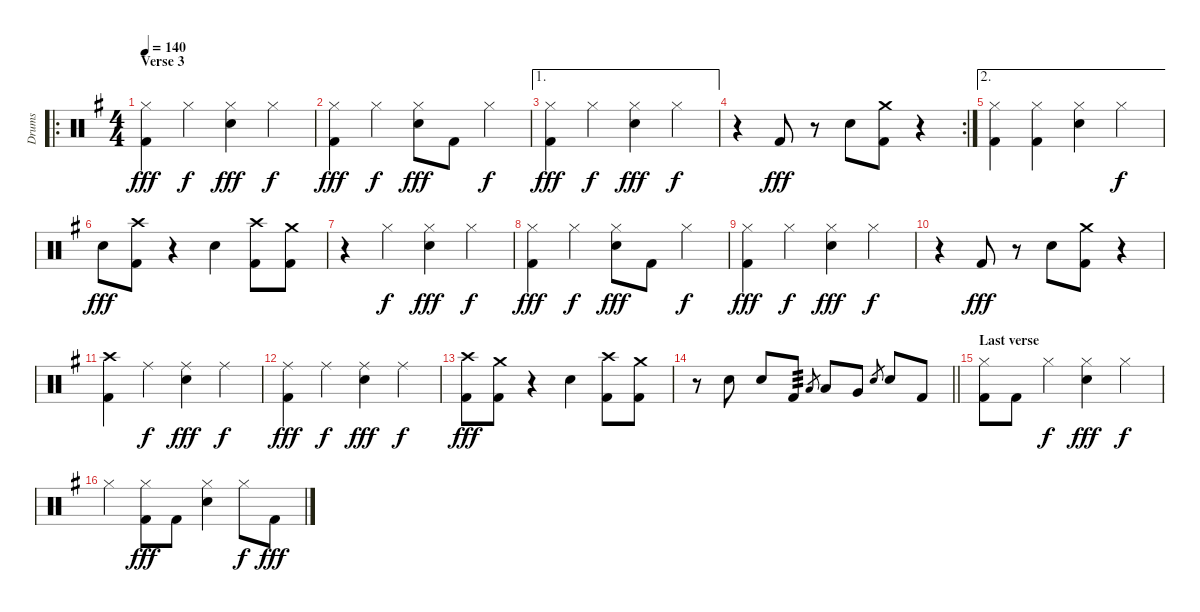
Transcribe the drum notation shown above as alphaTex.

\track ("Drums" "Drums") {instrument percussion}
\staff {score}
\articulation defaults
\ro
\ts (4 4)
\section ("" "Verse 3")
\tempo 140
\clef neutral
\ks eminor
("Hi-Hat (closed)" "Kick (hit) 2").4{dy fff} "Hi-Hat (closed)".4{dy f} ("Electric Snare (hit)" "Hi-Hat (closed)").4{dy fff} "Hi-Hat (closed)".4{dy f} |
("Hi-Hat (closed)" "Kick (hit) 2").4{dy fff} "Hi-Hat (closed)".4{dy f} ("Electric Snare (hit)" "Hi-Hat (closed)").8{dy fff} "Kick (hit) 2".8 "Hi-Hat (closed)".4{dy f} |
\ae 1
("Hi-Hat (closed)" "Kick (hit) 2").4{dy fff} "Hi-Hat (closed)".4{dy f} ("Electric Snare (hit)" "Hi-Hat (closed)").4{dy fff} "Hi-Hat (closed)".4{dy f} |
\rc 2
r.4 "Kick (hit) 2".8{dy fff} r.8 "Electric Snare (hit)".8 ("Crash medium (hit)" "Kick (hit) 2").8 r.4 |
\ae 2
("Hi-Hat (closed)" "Kick (hit) 2").4 ("Hi-Hat (closed)" "Kick (hit) 2").4 ("Electric Snare (hit)" "Hi-Hat (closed)").4 "Hi-Hat (closed)".4{dy f} |
"Electric Snare (hit)".8{dy fff} ("Crash high (hit)" "Kick (hit) 2").8 r.4 "Electric Snare (hit)".4 ("Crash high (hit)" "Kick (hit) 2").8 ("Crash medium (hit)" "Kick (hit) 2").8 |
r.4 "Hi-Hat (closed)".4{dy f} ("Electric Snare (hit)" "Hi-Hat (closed)").4{dy fff} "Hi-Hat (closed)".4{dy f} |
("Hi-Hat (closed)" "Kick (hit) 2").4{dy fff} "Hi-Hat (closed)".4{dy f} ("Electric Snare (hit)" "Hi-Hat (closed)").8{dy fff} "Kick (hit) 2".8 "Hi-Hat (closed)".4{dy f} |
("Hi-Hat (closed)" "Kick (hit) 2").4{dy fff} "Hi-Hat (closed)".4{dy f} ("Electric Snare (hit)" "Hi-Hat (closed)").4{dy fff} "Hi-Hat (closed)".4{dy f} |
r.4 "Kick (hit) 2".8{dy fff} r.8 "Electric Snare (hit)".8 ("Crash medium (hit)" "Kick (hit) 2").8 r.4 |
("Crash high (hit)" "Kick (hit) 2").4 "Ride (middle)".4{dy f} ("Electric Snare (hit)" "Ride (middle)").4{dy fff} "Ride (middle)".4{dy f} |
("Ride (middle)" "Kick (hit) 2").4{dy fff} "Ride (middle)".4{dy f} ("Electric Snare (hit)" "Ride (middle)").4{dy fff} "Ride (middle)".4{dy f} |
("Crash high (hit)" "Kick (hit) 2").8{dy fff} ("Crash medium (hit)" "Kick (hit) 2").8 r.4 "Electric Snare (hit)".4 ("Crash high (hit)" "Kick (hit) 2").8 ("Crash medium (hit)" "Kick (hit) 2").8 |
\barLineRight lightlight
r.8 "Electric Snare (hit)".8 "Electric Snare (hit)".8 "Kick (hit) 2".8{tp 3} "Low Tom (hit)".8{gr} "Low Tom (hit)".8 "Very Low Tom (hit)".8 "Electric Snare (hit)".8{gr} "Electric Snare (hit)".8 "Kick (hit) 2".8 |
\section ("" "Last verse")
("Hi-Hat (closed)" "Kick (hit) 2").8 "Kick (hit) 2".8 "Hi-Hat (closed)".4{dy f} ("Electric Snare (hit)" "Hi-Hat (closed)").4{dy fff} "Hi-Hat (closed)".4{dy f} |
"Hi-Hat (closed)".4 ("Hi-Hat (closed)" "Kick (hit) 2").8{dy fff} "Kick (hit) 2".8 ("Electric Snare (hit)" "Hi-Hat (closed)").4 "Hi-Hat (closed)".8{dy f} "Kick (hit) 2".8{dy fff}
